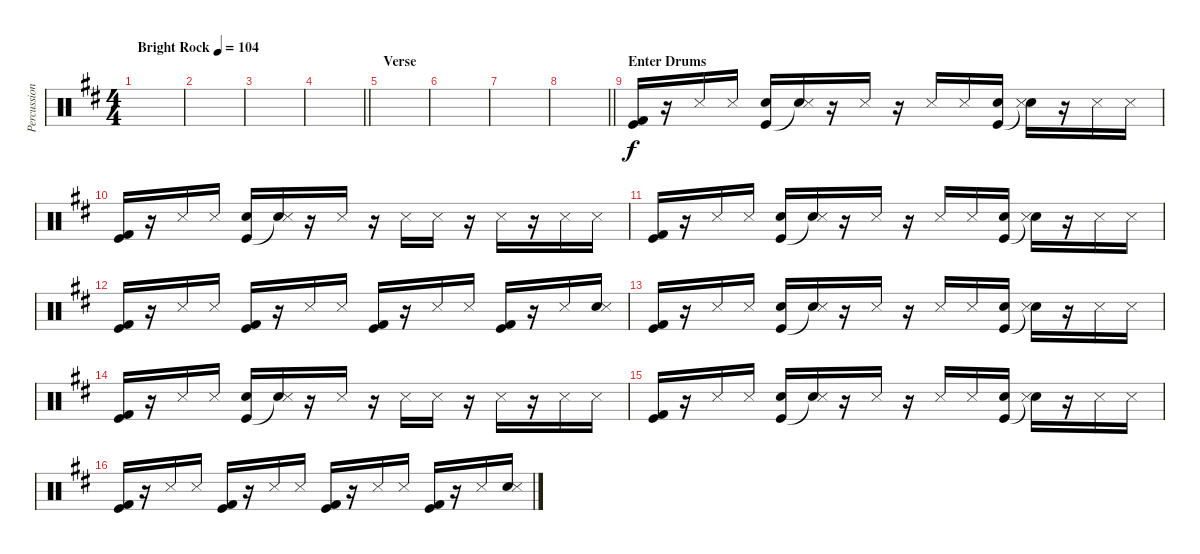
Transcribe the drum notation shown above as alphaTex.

\track ("Percussion" "Percussion") {instrument percussion}
\staff {score}
\articulation defaults
\ts (4 4)
\tempo (104 "Bright Rock")
\clef neutral
\ks d
|
|
|
\barLineRight lightlight
|
\section ("" "Verse")
|
|
|
\barLineRight lightlight
|
\section ("" "Enter Drums")
("Kick (hit)" "Kick (hit) 2").16 r.16 "Snare (side stick) 3".16 "Snare (side stick) 3".16 ("Kick (hit)" "Electric Snare (hit)").16 ("Electric Snare (hit)"{t} "Snare (side stick) 3").16 r.16 "Snare (side stick) 3".16 r.16 "Snare (side stick) 3".16 "Snare (side stick) 3".16 ("Kick (hit)" "Electric Snare (hit)").16 ("Snare (hit)"{t} "Snare (side stick) 3").16 r.16 "Snare (side stick) 3".16 "Snare (side stick) 3".16 |
("Kick (hit)" "Kick (hit) 2").16 r.16 "Snare (side stick) 3".16 "Snare (side stick) 3".16 ("Kick (hit)" "Electric Snare (hit)").16 ("Electric Snare (hit)"{t} "Snare (side stick) 3").16 r.16 "Snare (side stick) 3".16 r.16 "Snare (side stick) 3".16 "Snare (side stick) 3".16 r.16 "Snare (side stick) 3".16 r.16 "Snare (side stick) 3".16 "Snare (side stick) 3".16 |
("Kick (hit)" "Kick (hit) 2").16 r.16 "Snare (side stick) 3".16 "Snare (side stick) 3".16 ("Kick (hit)" "Electric Snare (hit)").16 ("Electric Snare (hit)"{t} "Snare (side stick) 3").16 r.16 "Snare (side stick) 3".16 r.16 "Snare (side stick) 3".16 "Snare (side stick) 3".16 ("Kick (hit)" "Electric Snare (hit)").16 ("Snare (hit)"{t} "Snare (side stick) 3").16 r.16 "Snare (side stick) 3".16 "Snare (side stick) 3".16 |
("Kick (hit)" "Kick (hit) 2").16 r.16 "Snare (side stick) 3".16 "Snare (side stick) 3".16 ("Kick (hit)" "Kick (hit) 2").16 r.16 "Snare (side stick) 3".16 "Snare (side stick) 3".16 ("Kick (hit)" "Kick (hit) 2").16 r.16 "Snare (side stick) 3".16 "Snare (side stick) 3".16 ("Kick (hit)" "Kick (hit) 2").16 r.16 "Snare (side stick) 3".16 ("Electric Snare (hit)" "Snare (side stick) 3").16 |
("Kick (hit)" "Kick (hit) 2").16 r.16 "Snare (side stick) 3".16 "Snare (side stick) 3".16 ("Kick (hit)" "Electric Snare (hit)").16 ("Electric Snare (hit)"{t} "Snare (side stick) 3").16 r.16 "Snare (side stick) 3".16 r.16 "Snare (side stick) 3".16 "Snare (side stick) 3".16 ("Kick (hit)" "Electric Snare (hit)").16 ("Snare (hit)"{t} "Snare (side stick) 3").16 r.16 "Snare (side stick) 3".16 "Snare (side stick) 3".16 |
("Kick (hit)" "Kick (hit) 2").16 r.16 "Snare (side stick) 3".16 "Snare (side stick) 3".16 ("Kick (hit)" "Electric Snare (hit)").16 ("Electric Snare (hit)"{t} "Snare (side stick) 3").16 r.16 "Snare (side stick) 3".16 r.16 "Snare (side stick) 3".16 "Snare (side stick) 3".16 r.16 "Snare (side stick) 3".16 r.16 "Snare (side stick) 3".16 "Snare (side stick) 3".16 |
("Kick (hit)" "Kick (hit) 2").16 r.16 "Snare (side stick) 3".16 "Snare (side stick) 3".16 ("Kick (hit)" "Electric Snare (hit)").16 ("Electric Snare (hit)"{t} "Snare (side stick) 3").16 r.16 "Snare (side stick) 3".16 r.16 "Snare (side stick) 3".16 "Snare (side stick) 3".16 ("Kick (hit)" "Electric Snare (hit)").16 ("Snare (hit)"{t} "Snare (side stick) 3").16 r.16 "Snare (side stick) 3".16 "Snare (side stick) 3".16 |
("Kick (hit)" "Kick (hit) 2").16 r.16 "Snare (side stick) 3".16 "Snare (side stick) 3".16 ("Kick (hit)" "Kick (hit) 2").16 r.16 "Snare (side stick) 3".16 "Snare (side stick) 3".16 ("Kick (hit)" "Kick (hit) 2").16 r.16 "Snare (side stick) 3".16 "Snare (side stick) 3".16 ("Kick (hit)" "Kick (hit) 2").16 r.16 "Snare (side stick) 3".16 ("Electric Snare (hit)" "Snare (side stick) 3").16
